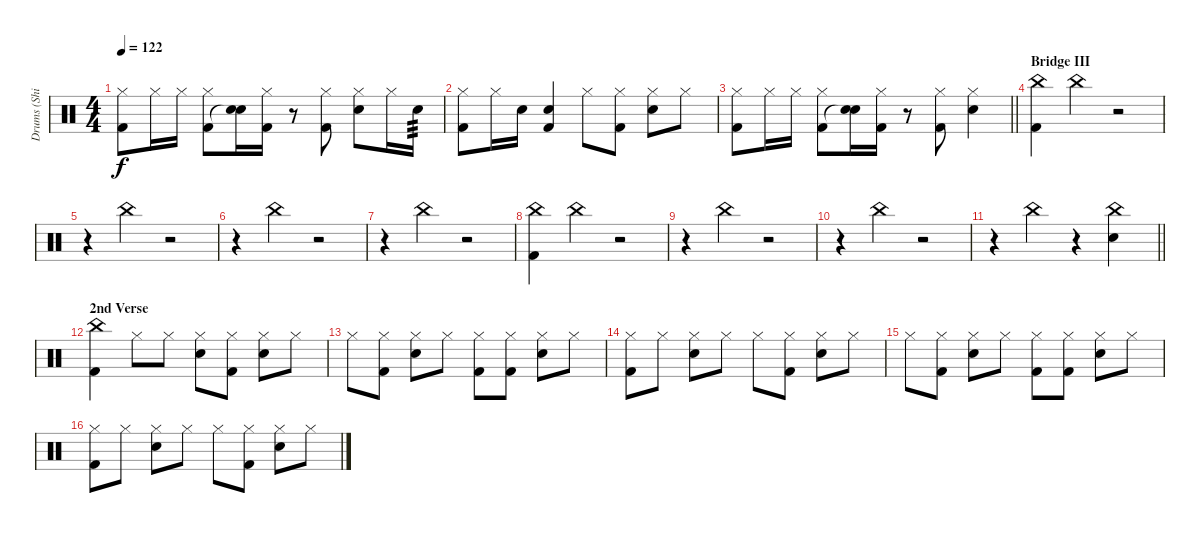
\track ("Drums (Shinya)" "Drums (Shi") {instrument percussion}
\staff {score}
\articulation defaults
\ts (4 4)
\tempo 122
\clef neutral
\ks c
("Hi-Hat (closed)" "Kick (hit) 2").8{dy f} "Hi-Hat (closed)".16 "Hi-Hat (closed)".16 ("Hi-Hat (closed)" "Kick (hit) 2").8 ("Snare (hit) 2" "Snare (hit)"{t}).16 ("Hi-Hat (closed)" "Kick (hit) 2").16 r.8 ("Hi-Hat (closed)" "Kick (hit) 2").8 ("Snare (hit) 2" "Hi-Hat (closed)").8 "Hi-Hat (closed)".16 "Snare (hit) 2".16{tp 3} |
("Hi-Hat (closed)" "Kick (hit) 2").8 "Hi-Hat (closed)".16 "Snare (hit) 2".16 ("Snare (hit) 2" "Kick (hit) 2").4 "Hi-Hat (closed)".8 ("Hi-Hat (closed)" "Kick (hit) 2").8 ("Snare (hit) 2" "Hi-Hat (closed)").8 "Hi-Hat (closed)".8 |
\barLineRight lightlight
("Hi-Hat (closed)" "Kick (hit) 2").8 "Hi-Hat (closed)".16 "Hi-Hat (closed)".16 ("Hi-Hat (closed)" "Kick (hit) 2").8 ("Snare (hit) 2" "Snare (hit)"{t}).16 ("Hi-Hat (closed)" "Kick (hit) 2").16 r.8 ("Hi-Hat (closed)" "Kick (hit) 2").8 ("Snare (hit) 2" "Hi-Hat (closed)").4 |
\section ("" "Bridge III")
("China (hit)" "Kick (hit) 2").4 "China (hit)".4 r.2 |
r.4 "China (hit)".4 r.2 |
r.4 "China (hit)".4 r.2 |
r.4 "China (hit)".4 r.2 |
("China (hit)" "Kick (hit) 2").4 "China (hit)".4 r.2 |
r.4 "China (hit)".4 r.2 |
r.4 "China (hit)".4 r.2 |
\barLineRight lightlight
r.4 "China (hit)".4 r.4 ("Snare (hit) 2" "China (hit)").4 |
\section ("" "2nd Verse")
("China (hit)" "Kick (hit) 2").4 "Hi-Hat (closed)".8 "Hi-Hat (closed)".8 ("Snare (hit) 2" "Hi-Hat (closed)").8 ("Hi-Hat (closed)" "Kick (hit) 2").8 ("Snare (hit) 2" "Hi-Hat (closed)").8 "Hi-Hat (closed)".8 |
"Hi-Hat (closed)".8 ("Hi-Hat (closed)" "Kick (hit) 2").8 ("Snare (hit) 2" "Hi-Hat (closed)").8 "Hi-Hat (closed)".8 ("Hi-Hat (closed)" "Kick (hit) 2").8 ("Hi-Hat (closed)" "Kick (hit) 2").8 ("Snare (hit) 2" "Hi-Hat (closed)").8 "Hi-Hat (closed)".8 |
("Hi-Hat (closed)" "Kick (hit) 2").8 "Hi-Hat (closed)".8 ("Snare (hit) 2" "Hi-Hat (closed)").8 "Hi-Hat (closed)".8 "Hi-Hat (closed)".8 ("Hi-Hat (closed)" "Kick (hit) 2").8 ("Snare (hit) 2" "Hi-Hat (closed)").8 "Hi-Hat (closed)".8 |
"Hi-Hat (closed)".8 ("Hi-Hat (closed)" "Kick (hit) 2").8 ("Snare (hit) 2" "Hi-Hat (closed)").8 "Hi-Hat (closed)".8 ("Hi-Hat (closed)" "Kick (hit) 2").8 ("Hi-Hat (closed)" "Kick (hit) 2").8 ("Snare (hit) 2" "Hi-Hat (closed)").8 "Hi-Hat (closed)".8 |
("Hi-Hat (closed)" "Kick (hit) 2").8 "Hi-Hat (closed)".8 ("Snare (hit) 2" "Hi-Hat (closed)").8 "Hi-Hat (closed)".8 "Hi-Hat (closed)".8 ("Hi-Hat (closed)" "Kick (hit) 2").8 ("Snare (hit) 2" "Hi-Hat (closed)").8 "Hi-Hat (closed)".8
